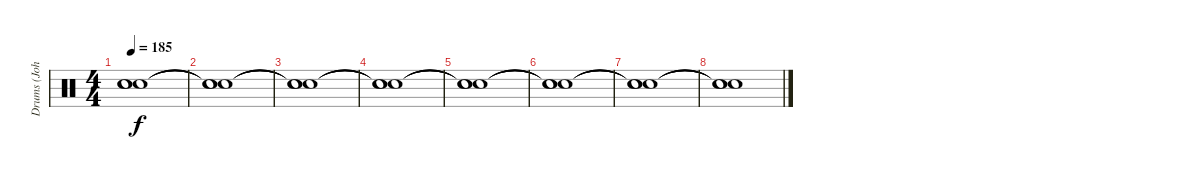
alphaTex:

\track ("Drums (John Bengtsson)" "Drums (Joh") {instrument percussion}
\staff {score}
\articulation defaults
\ts (4 4)
\tempo 185
\clef neutral
\ks c
("Snare (hit)"{t} "Snare (hit)"{t} "Snare (hit)"{t}).1{dy f} |
("Snare (hit)"{t} "Snare (hit)"{t} "Snare (hit)"{t}).1 |
("Snare (hit)"{t} "Snare (hit)"{t} "Snare (hit)"{t}).1 |
("Snare (hit)"{t} "Snare (hit)"{t} "Snare (hit)"{t}).1 |
("Snare (hit)"{t} "Snare (hit)"{t} "Snare (hit)"{t}).1 |
("Snare (hit)"{t} "Snare (hit)"{t} "Snare (hit)"{t}).1 |
("Snare (hit)"{t} "Snare (hit)"{t} "Snare (hit)"{t}).1 |
("Snare (hit)"{t} "Snare (hit)"{t} "Snare (hit)"{t}).1
